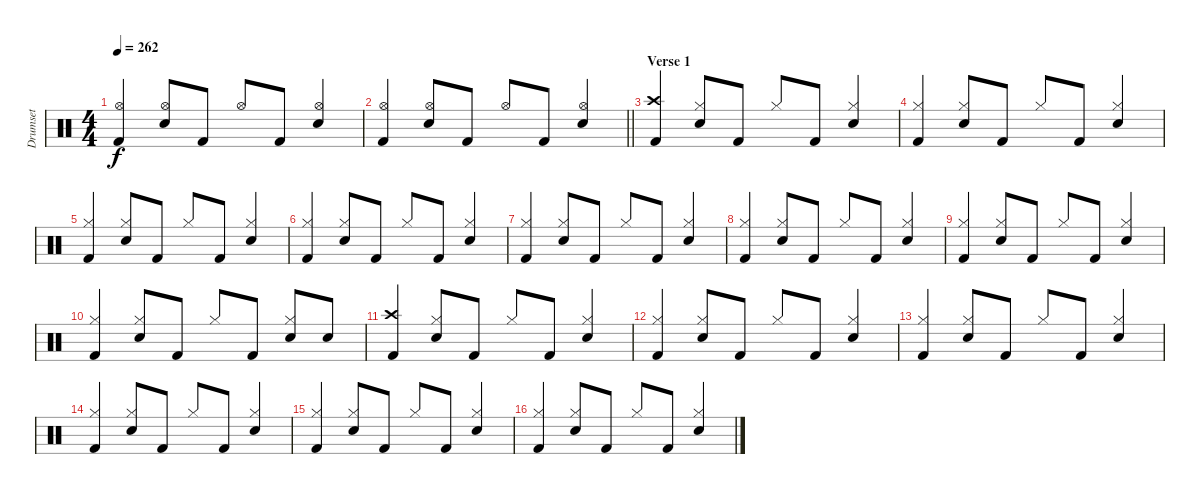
\track ("Drumset" "Drumset") {instrument percussion}
\staff {score}
\articulation defaults
\ts (4 4)
\tempo 262
\clef neutral
\ks c
("Hi-Hat (open)" "Kick (hit) 2").4{dy f beam Up} ("Snare (hit) 2" "Hi-Hat (open)").8{beam Up} "Kick (hit) 2".8{beam Up} "Hi-Hat (open)".8{beam Up} "Kick (hit) 2".8{beam Up} ("Hi-Hat (open)" "Snare (hit) 2").4{beam Up} |
\barLineRight lightlight
("Hi-Hat (open)" "Kick (hit) 2").4{beam Up} ("Snare (hit) 2" "Hi-Hat (open)").8{beam Up} "Kick (hit) 2".8{beam Up} "Hi-Hat (open)".8{beam Up} "Kick (hit) 2".8{beam Up} ("Hi-Hat (open)" "Snare (hit) 2").4{beam Up} |
\section ("" "Verse 1")
("Crash high (hit)" "Kick (hit) 2").4{beam Up} ("Snare (hit) 2" "Hi-Hat (closed)").8{beam Up} "Kick (hit) 2".8{beam Up} "Hi-Hat (closed)".8{beam Up} "Kick (hit) 2".8{beam Up} ("Snare (hit) 2" "Hi-Hat (closed)").4{beam Up} |
("Hi-Hat (closed)" "Kick (hit) 2").4{beam Up} ("Hi-Hat (closed)" "Snare (hit) 2").8{beam Up} "Kick (hit) 2".8{beam Up} "Hi-Hat (closed)".8{beam Up} "Kick (hit) 2".8{beam Up} ("Snare (hit) 2" "Hi-Hat (closed)").4{beam Up} |
("Hi-Hat (closed)" "Kick (hit) 2").4{beam Up} ("Hi-Hat (closed)" "Snare (hit) 2").8{beam Up} "Kick (hit) 2".8{beam Up} "Hi-Hat (closed)".8{beam Up} "Kick (hit) 2".8{beam Up} ("Snare (hit) 2" "Hi-Hat (closed)").4{beam Up} |
("Hi-Hat (closed)" "Kick (hit) 2").4{beam Up} ("Hi-Hat (closed)" "Snare (hit) 2").8{beam Up} "Kick (hit) 2".8{beam Up} "Hi-Hat (closed)".8{beam Up} "Kick (hit) 2".8{beam Up} ("Snare (hit) 2" "Hi-Hat (closed)").4{beam Up} |
("Hi-Hat (closed)" "Kick (hit) 2").4{beam Up} ("Hi-Hat (closed)" "Snare (hit) 2").8{beam Up} "Kick (hit) 2".8{beam Up} "Hi-Hat (closed)".8{beam Up} "Kick (hit) 2".8{beam Up} ("Snare (hit) 2" "Hi-Hat (closed)").4{beam Up} |
("Hi-Hat (closed)" "Kick (hit) 2").4{beam Up} ("Hi-Hat (closed)" "Snare (hit) 2").8{beam Up} "Kick (hit) 2".8{beam Up} "Hi-Hat (closed)".8{beam Up} "Kick (hit) 2".8{beam Up} ("Snare (hit) 2" "Hi-Hat (closed)").4{beam Up} |
("Hi-Hat (closed)" "Kick (hit) 2").4{beam Up} ("Hi-Hat (closed)" "Snare (hit) 2").8{beam Up} "Kick (hit) 2".8{beam Up} "Hi-Hat (closed)".8{beam Up} "Kick (hit) 2".8{beam Up} ("Snare (hit) 2" "Hi-Hat (closed)").4{beam Up} |
("Hi-Hat (closed)" "Kick (hit) 2").4{beam Up} ("Hi-Hat (closed)" "Snare (hit) 2").8{beam Up} "Kick (hit) 2".8{beam Up} "Hi-Hat (closed)".8{beam Up} "Kick (hit) 2".8{beam Up} ("Snare (hit) 2" "Hi-Hat (closed)").8{beam Up} "Snare (hit) 2".8{beam Up} |
("Crash high (hit)" "Kick (hit) 2").4{beam Up} ("Snare (hit) 2" "Hi-Hat (closed)").8{beam Up} "Kick (hit) 2".8{beam Up} "Hi-Hat (closed)".8{beam Up} "Kick (hit) 2".8{beam Up} ("Snare (hit) 2" "Hi-Hat (closed)").4{beam Up} |
("Hi-Hat (closed)" "Kick (hit) 2").4{beam Up} ("Hi-Hat (closed)" "Snare (hit) 2").8{beam Up} "Kick (hit) 2".8{beam Up} "Hi-Hat (closed)".8{beam Up} "Kick (hit) 2".8{beam Up} ("Snare (hit) 2" "Hi-Hat (closed)").4{beam Up} |
("Hi-Hat (closed)" "Kick (hit) 2").4{beam Up} ("Hi-Hat (closed)" "Snare (hit) 2").8{beam Up} "Kick (hit) 2".8{beam Up} "Hi-Hat (closed)".8{beam Up} "Kick (hit) 2".8{beam Up} ("Snare (hit) 2" "Hi-Hat (closed)").4{beam Up} |
("Hi-Hat (closed)" "Kick (hit) 2").4{beam Up} ("Hi-Hat (closed)" "Snare (hit) 2").8{beam Up} "Kick (hit) 2".8{beam Up} "Hi-Hat (closed)".8{beam Up} "Kick (hit) 2".8{beam Up} ("Snare (hit) 2" "Hi-Hat (closed)").4{beam Up} |
("Hi-Hat (closed)" "Kick (hit) 2").4{beam Up} ("Hi-Hat (closed)" "Snare (hit) 2").8{beam Up} "Kick (hit) 2".8{beam Up} "Hi-Hat (closed)".8{beam Up} "Kick (hit) 2".8{beam Up} ("Snare (hit) 2" "Hi-Hat (closed)").4{beam Up} |
("Hi-Hat (closed)" "Kick (hit) 2").4{beam Up} ("Hi-Hat (closed)" "Snare (hit) 2").8{beam Up} "Kick (hit) 2".8{beam Up} "Hi-Hat (closed)".8{beam Up} "Kick (hit) 2".8{beam Up} ("Snare (hit) 2" "Hi-Hat (closed)").4{beam Up}
